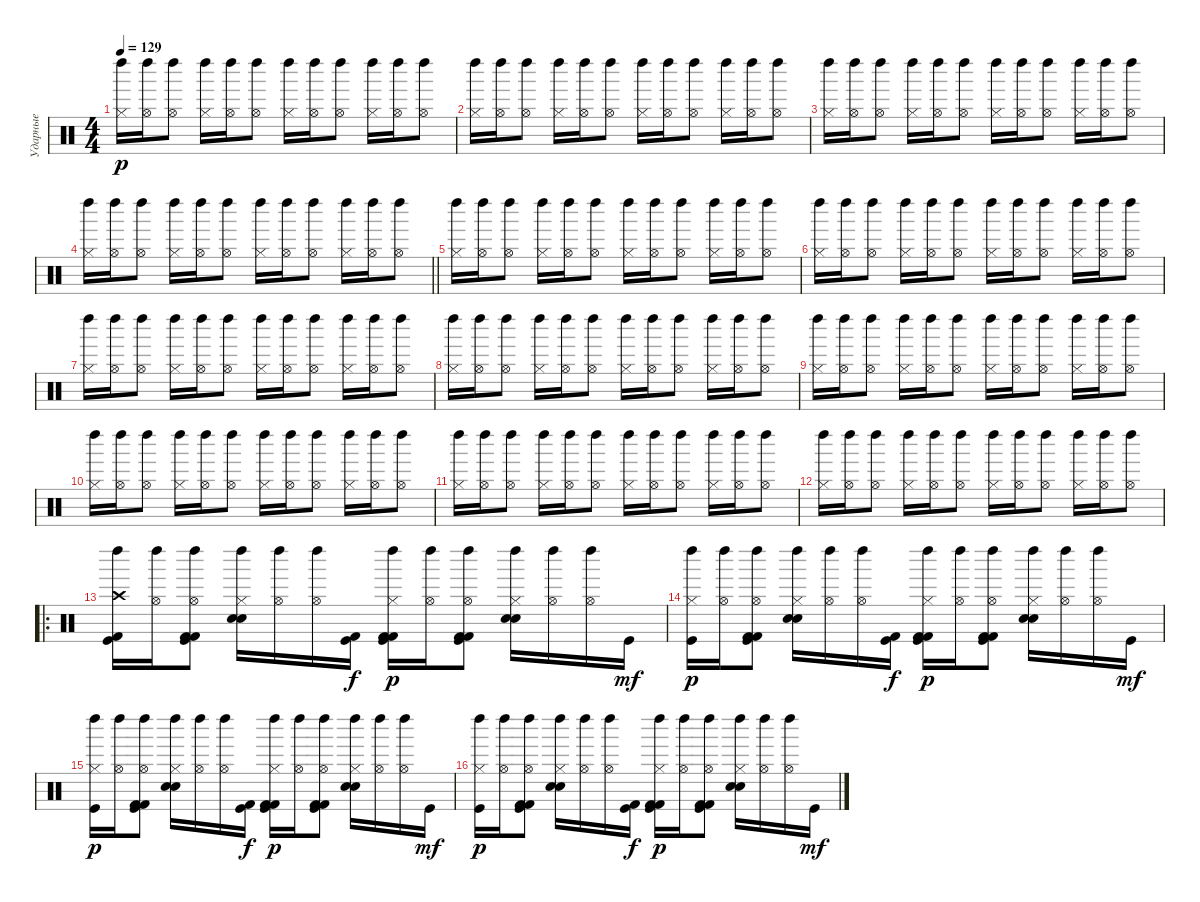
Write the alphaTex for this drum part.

\track ("Ударные" "Ударные") {instrument percussion}
\staff {score}
\articulation defaults
\ts (4 4)
\tempo 129
\clef neutral
\ks c
("Hi-Hat (closed)" "Left Maraca (hit)").16{dy p} ("Left Maraca (hit)" "Hi-Hat (open)").16 ("Left Maraca (hit)" "Hi-Hat (open)").8 ("Hi-Hat (closed)" "Left Maraca (hit)").16 ("Left Maraca (hit)" "Hi-Hat (open)").16 ("Left Maraca (hit)" "Hi-Hat (open)").8 ("Hi-Hat (closed)" "Left Maraca (hit)").16 ("Left Maraca (hit)" "Hi-Hat (open)").16 ("Left Maraca (hit)" "Hi-Hat (open)").8 ("Hi-Hat (closed)" "Left Maraca (hit)").16 ("Left Maraca (hit)" "Hi-Hat (open)").16 ("Left Maraca (hit)" "Hi-Hat (open)").8 |
("Hi-Hat (closed)" "Left Maraca (hit)").16 ("Left Maraca (hit)" "Hi-Hat (open)").16 ("Left Maraca (hit)" "Hi-Hat (open)").8 ("Hi-Hat (closed)" "Left Maraca (hit)").16 ("Left Maraca (hit)" "Hi-Hat (open)").16 ("Left Maraca (hit)" "Hi-Hat (open)").8 ("Hi-Hat (closed)" "Left Maraca (hit)").16 ("Left Maraca (hit)" "Hi-Hat (open)").16 ("Left Maraca (hit)" "Hi-Hat (open)").8 ("Hi-Hat (closed)" "Left Maraca (hit)").16 ("Left Maraca (hit)" "Hi-Hat (open)").16 ("Left Maraca (hit)" "Hi-Hat (open)").8 |
("Hi-Hat (closed)" "Left Maraca (hit)").16 ("Left Maraca (hit)" "Hi-Hat (open)").16 ("Left Maraca (hit)" "Hi-Hat (open)").8 ("Hi-Hat (closed)" "Left Maraca (hit)").16 ("Left Maraca (hit)" "Hi-Hat (open)").16 ("Left Maraca (hit)" "Hi-Hat (open)").8 ("Hi-Hat (closed)" "Left Maraca (hit)").16 ("Left Maraca (hit)" "Hi-Hat (open)").16 ("Left Maraca (hit)" "Hi-Hat (open)").8 ("Hi-Hat (closed)" "Left Maraca (hit)").16 ("Left Maraca (hit)" "Hi-Hat (open)").16 ("Left Maraca (hit)" "Hi-Hat (open)").8 |
\barLineRight lightlight
("Hi-Hat (closed)" "Left Maraca (hit)").16 ("Left Maraca (hit)" "Hi-Hat (open)").16 ("Left Maraca (hit)" "Hi-Hat (open)").8 ("Hi-Hat (closed)" "Left Maraca (hit)").16 ("Left Maraca (hit)" "Hi-Hat (open)").16 ("Left Maraca (hit)" "Hi-Hat (open)").8 ("Hi-Hat (closed)" "Left Maraca (hit)").16 ("Left Maraca (hit)" "Hi-Hat (open)").16 ("Left Maraca (hit)" "Hi-Hat (open)").8 ("Hi-Hat (closed)" "Left Maraca (hit)").16 ("Left Maraca (hit)" "Hi-Hat (open)").16 ("Left Maraca (hit)" "Hi-Hat (open)").8 |
("Hi-Hat (closed)" "Left Maraca (hit)").16 ("Left Maraca (hit)" "Hi-Hat (open)").16 ("Left Maraca (hit)" "Hi-Hat (open)").8 ("Hi-Hat (closed)" "Left Maraca (hit)").16 ("Left Maraca (hit)" "Hi-Hat (open)").16 ("Left Maraca (hit)" "Hi-Hat (open)").8 ("Hi-Hat (closed)" "Left Maraca (hit)").16 ("Left Maraca (hit)" "Hi-Hat (open)").16 ("Left Maraca (hit)" "Hi-Hat (open)").8 ("Hi-Hat (closed)" "Left Maraca (hit)").16 ("Left Maraca (hit)" "Hi-Hat (open)").16 ("Left Maraca (hit)" "Hi-Hat (open)").8 |
("Hi-Hat (closed)" "Left Maraca (hit)").16 ("Left Maraca (hit)" "Hi-Hat (open)").16 ("Left Maraca (hit)" "Hi-Hat (open)").8 ("Hi-Hat (closed)" "Left Maraca (hit)").16 ("Left Maraca (hit)" "Hi-Hat (open)").16 ("Left Maraca (hit)" "Hi-Hat (open)").8 ("Hi-Hat (closed)" "Left Maraca (hit)").16 ("Left Maraca (hit)" "Hi-Hat (open)").16 ("Left Maraca (hit)" "Hi-Hat (open)").8 ("Hi-Hat (closed)" "Left Maraca (hit)").16 ("Left Maraca (hit)" "Hi-Hat (open)").16 ("Left Maraca (hit)" "Hi-Hat (open)").8 |
("Hi-Hat (closed)" "Left Maraca (hit)").16 ("Left Maraca (hit)" "Hi-Hat (open)").16 ("Left Maraca (hit)" "Hi-Hat (open)").8 ("Hi-Hat (closed)" "Left Maraca (hit)").16 ("Left Maraca (hit)" "Hi-Hat (open)").16 ("Left Maraca (hit)" "Hi-Hat (open)").8 ("Hi-Hat (closed)" "Left Maraca (hit)").16 ("Left Maraca (hit)" "Hi-Hat (open)").16 ("Left Maraca (hit)" "Hi-Hat (open)").8 ("Hi-Hat (closed)" "Left Maraca (hit)").16 ("Left Maraca (hit)" "Hi-Hat (open)").16 ("Left Maraca (hit)" "Hi-Hat (open)").8 |
("Hi-Hat (closed)" "Left Maraca (hit)").16 ("Left Maraca (hit)" "Hi-Hat (open)").16 ("Left Maraca (hit)" "Hi-Hat (open)").8 ("Hi-Hat (closed)" "Left Maraca (hit)").16 ("Left Maraca (hit)" "Hi-Hat (open)").16 ("Left Maraca (hit)" "Hi-Hat (open)").8 ("Hi-Hat (closed)" "Left Maraca (hit)").16 ("Left Maraca (hit)" "Hi-Hat (open)").16 ("Left Maraca (hit)" "Hi-Hat (open)").8 ("Hi-Hat (closed)" "Left Maraca (hit)").16 ("Left Maraca (hit)" "Hi-Hat (open)").16 ("Left Maraca (hit)" "Hi-Hat (open)").8 |
("Hi-Hat (closed)" "Left Maraca (hit)").16 ("Left Maraca (hit)" "Hi-Hat (open)").16 ("Left Maraca (hit)" "Hi-Hat (open)").8 ("Hi-Hat (closed)" "Left Maraca (hit)").16 ("Left Maraca (hit)" "Hi-Hat (open)").16 ("Left Maraca (hit)" "Hi-Hat (open)").8 ("Hi-Hat (closed)" "Left Maraca (hit)").16 ("Left Maraca (hit)" "Hi-Hat (open)").16 ("Left Maraca (hit)" "Hi-Hat (open)").8 ("Hi-Hat (closed)" "Left Maraca (hit)").16 ("Left Maraca (hit)" "Hi-Hat (open)").16 ("Left Maraca (hit)" "Hi-Hat (open)").8 |
("Hi-Hat (closed)" "Left Maraca (hit)").16 ("Left Maraca (hit)" "Hi-Hat (open)").16 ("Left Maraca (hit)" "Hi-Hat (open)").8 ("Hi-Hat (closed)" "Left Maraca (hit)").16 ("Left Maraca (hit)" "Hi-Hat (open)").16 ("Left Maraca (hit)" "Hi-Hat (open)").8 ("Hi-Hat (closed)" "Left Maraca (hit)").16 ("Left Maraca (hit)" "Hi-Hat (open)").16 ("Left Maraca (hit)" "Hi-Hat (open)").8 ("Hi-Hat (closed)" "Left Maraca (hit)").16 ("Left Maraca (hit)" "Hi-Hat (open)").16 ("Left Maraca (hit)" "Hi-Hat (open)").8 |
("Hi-Hat (closed)" "Left Maraca (hit)").16 ("Left Maraca (hit)" "Hi-Hat (open)").16 ("Left Maraca (hit)" "Hi-Hat (open)").8 ("Hi-Hat (closed)" "Left Maraca (hit)").16 ("Left Maraca (hit)" "Hi-Hat (open)").16 ("Left Maraca (hit)" "Hi-Hat (open)").8 ("Hi-Hat (closed)" "Left Maraca (hit)").16 ("Left Maraca (hit)" "Hi-Hat (open)").16 ("Left Maraca (hit)" "Hi-Hat (open)").8 ("Hi-Hat (closed)" "Left Maraca (hit)").16 ("Left Maraca (hit)" "Hi-Hat (open)").16 ("Left Maraca (hit)" "Hi-Hat (open)").8 |
("Hi-Hat (closed)" "Left Maraca (hit)").16 ("Left Maraca (hit)" "Hi-Hat (open)").16 ("Left Maraca (hit)" "Hi-Hat (open)").8 ("Hi-Hat (closed)" "Left Maraca (hit)").16 ("Left Maraca (hit)" "Hi-Hat (open)").16 ("Left Maraca (hit)" "Hi-Hat (open)").8 ("Hi-Hat (closed)" "Left Maraca (hit)").16 ("Left Maraca (hit)" "Hi-Hat (open)").16 ("Left Maraca (hit)" "Hi-Hat (open)").8 ("Hi-Hat (closed)" "Left Maraca (hit)").16 ("Left Maraca (hit)" "Hi-Hat (open)").16 ("Left Maraca (hit)" "Hi-Hat (open)").8 |
\ro
("Kick (hit)" "Kick (hit) 2" "Crash high (hit)" "Left Maraca (hit)").16 ("Left Maraca (hit)" "Hi-Hat (open)").16 ("Kick (hit)" "Kick (hit) 2" "Kick (hit) 2" "Left Maraca (hit)" "Hi-Hat (open)").8 ("Snare (hit) 2" "Electric Snare (hit)" "Hi-Hat (closed)" "Left Maraca (hit)").16 ("Left Maraca (hit)" "Hi-Hat (open)").16 ("Left Maraca (hit)" "Hi-Hat (open)").16 ("Kick (hit)" "Kick (hit) 2").16{dy f} ("Kick (hit)" "Kick (hit) 2" "Kick (hit) 2" "Hi-Hat (closed)" "Left Maraca (hit)").16{dy p} ("Left Maraca (hit)" "Hi-Hat (open)").16 ("Kick (hit)" "Kick (hit) 2" "Kick (hit) 2" "Left Maraca (hit)" "Hi-Hat (open)").8 ("Snare (hit) 2" "Electric Snare (hit)" "Hi-Hat (closed)" "Left Maraca (hit)").16 ("Left Maraca (hit)" "Hi-Hat (open)").16 ("Left Maraca (hit)" "Hi-Hat (open)").16 "Kick (hit)".16{dy mf} |
("Kick (hit)" "Hi-Hat (closed)" "Left Maraca (hit)").16{dy p} ("Left Maraca (hit)" "Hi-Hat (open)").16 ("Kick (hit)" "Kick (hit) 2" "Kick (hit) 2" "Left Maraca (hit)" "Hi-Hat (open)").8 ("Snare (hit) 2" "Electric Snare (hit)" "Hi-Hat (closed)" "Left Maraca (hit)").16 ("Left Maraca (hit)" "Hi-Hat (open)").16 ("Left Maraca (hit)" "Hi-Hat (open)").16 ("Kick (hit)" "Kick (hit) 2").16{dy f} ("Kick (hit)" "Kick (hit) 2" "Kick (hit) 2" "Hi-Hat (closed)" "Left Maraca (hit)").16{dy p} ("Left Maraca (hit)" "Hi-Hat (open)").16 ("Kick (hit)" "Kick (hit) 2" "Kick (hit) 2" "Left Maraca (hit)" "Hi-Hat (open)").8 ("Snare (hit) 2" "Electric Snare (hit)" "Hi-Hat (closed)" "Left Maraca (hit)").16 ("Left Maraca (hit)" "Hi-Hat (open)").16 ("Left Maraca (hit)" "Hi-Hat (open)").16 "Kick (hit)".16{dy mf} |
("Kick (hit)" "Hi-Hat (closed)" "Left Maraca (hit)").16{dy p} ("Left Maraca (hit)" "Hi-Hat (open)").16 ("Kick (hit)" "Kick (hit) 2" "Kick (hit) 2" "Left Maraca (hit)" "Hi-Hat (open)").8 ("Snare (hit) 2" "Electric Snare (hit)" "Hi-Hat (closed)" "Left Maraca (hit)").16 ("Left Maraca (hit)" "Hi-Hat (open)").16 ("Left Maraca (hit)" "Hi-Hat (open)").16 ("Kick (hit)" "Kick (hit) 2").16{dy f} ("Kick (hit)" "Kick (hit) 2" "Kick (hit) 2" "Hi-Hat (closed)" "Left Maraca (hit)").16{dy p} ("Left Maraca (hit)" "Hi-Hat (open)").16 ("Kick (hit)" "Kick (hit) 2" "Kick (hit) 2" "Left Maraca (hit)" "Hi-Hat (open)").8 ("Snare (hit) 2" "Electric Snare (hit)" "Hi-Hat (closed)" "Left Maraca (hit)").16 ("Left Maraca (hit)" "Hi-Hat (open)").16 ("Left Maraca (hit)" "Hi-Hat (open)").16 "Kick (hit)".16{dy mf} |
("Kick (hit)" "Hi-Hat (closed)" "Left Maraca (hit)").16{dy p} ("Left Maraca (hit)" "Hi-Hat (open)").16 ("Kick (hit)" "Kick (hit) 2" "Kick (hit) 2" "Left Maraca (hit)" "Hi-Hat (open)").8 ("Snare (hit) 2" "Electric Snare (hit)" "Hi-Hat (closed)" "Left Maraca (hit)").16 ("Left Maraca (hit)" "Hi-Hat (open)").16 ("Left Maraca (hit)" "Hi-Hat (open)").16 ("Kick (hit)" "Kick (hit) 2").16{dy f} ("Kick (hit)" "Kick (hit) 2" "Kick (hit) 2" "Hi-Hat (closed)" "Left Maraca (hit)").16{dy p} ("Left Maraca (hit)" "Hi-Hat (open)").16 ("Kick (hit)" "Kick (hit) 2" "Kick (hit) 2" "Left Maraca (hit)" "Hi-Hat (open)").8 ("Snare (hit) 2" "Electric Snare (hit)" "Hi-Hat (closed)" "Left Maraca (hit)").16 ("Left Maraca (hit)" "Hi-Hat (open)").16 ("Left Maraca (hit)" "Hi-Hat (open)").16 "Kick (hit)".16{dy mf}
